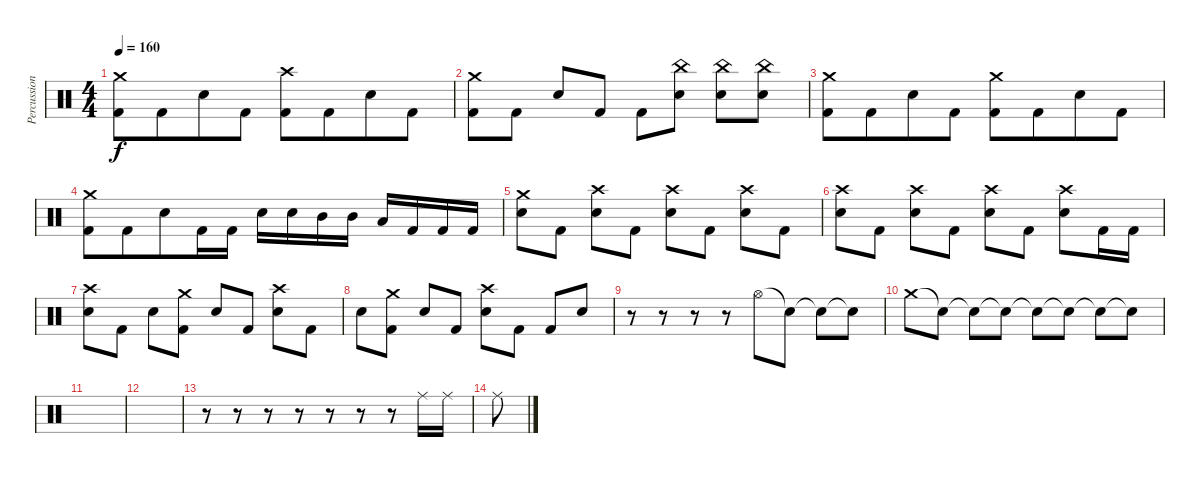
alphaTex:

\track ("Percussion" "Percussion") {instrument percussion}
\staff {score}
\articulation defaults
\ts (4 4)
\tempo 160
\clef neutral
\ks c
("Crash medium (hit)" "Kick (hit) 2").8{dy f beam merge} "Kick (hit) 2".8{beam merge} "Electric Snare (hit)".8 "Kick (hit) 2".8 ("Crash high (hit)" "Kick (hit) 2").8 "Kick (hit) 2".8{beam merge} "Electric Snare (hit)".8{beam merge} "Kick (hit) 2".8 |
("Crash medium (hit)" "Kick (hit) 2").8 "Kick (hit) 2".8 "Electric Snare (hit)".8{beam merge} "Kick (hit) 2".8 "Kick (hit) 2".8{beam merge} ("China (hit)" "Electric Snare (hit)").8 ("China (hit)" "Electric Snare (hit)").8 ("China (hit)" "Electric Snare (hit)").8 |
("Crash medium (hit)" "Kick (hit) 2").8{beam merge} "Kick (hit) 2".8{beam merge} "Electric Snare (hit)".8 "Kick (hit) 2".8 ("Crash medium (hit)" "Kick (hit) 2").8 "Kick (hit) 2".8{beam merge} "Electric Snare (hit)".8{beam merge} "Kick (hit) 2".8 |
("Crash medium (hit)" "Kick (hit) 2").8{beam merge} "Kick (hit) 2".8{beam merge} "Electric Snare (hit)".8 "Kick (hit) 2".16 "Kick (hit) 2".16 "Electric Snare (hit)".16 "Electric Snare (hit)".16{beam merge} "Mid Tom (hit)".16 "Mid Tom (hit)".16 "Low Tom (hit)".16 "Kick (hit) 2".16{beam merge} "Kick (hit) 2".16 "Kick (hit) 2".16 |
("Crash medium (hit)" "Electric Snare (hit)").8 "Kick (hit) 2".8 ("Crash high (hit)" "Electric Snare (hit)").8 "Kick (hit) 2".8 ("Crash high (hit)" "Electric Snare (hit)").8{beam merge} "Kick (hit) 2".8 ("Crash high (hit)" "Electric Snare (hit)").8 "Kick (hit) 2".8 |
("Crash high (hit)" "Electric Snare (hit)").8 "Kick (hit) 2".8 ("Crash high (hit)" "Electric Snare (hit)").8 "Kick (hit) 2".8 ("Crash high (hit)" "Electric Snare (hit)").8{beam merge} "Kick (hit) 2".8 ("Crash high (hit)" "Electric Snare (hit)").8 "Kick (hit) 2".16 "Kick (hit) 2".16 |
("Crash high (hit)" "Electric Snare (hit)").8 "Kick (hit) 2".8 "Electric Snare (hit)".8 ("Crash medium (hit)" "Kick (hit) 2").8 "Electric Snare (hit)".8{beam merge} "Kick (hit) 2".8 ("Crash high (hit)" "Electric Snare (hit)").8 "Kick (hit) 2".8 |
"Electric Snare (hit)".8 ("Crash medium (hit)" "Kick (hit) 2").8 "Electric Snare (hit)".8 "Kick (hit) 2".8 ("Crash high (hit)" "Electric Snare (hit)").8{beam merge} "Kick (hit) 2".8 "Kick (hit) 2".8 "Electric Snare (hit)".8 |
r.8{beam merge} r.8 r.8{beam merge} r.8{beam merge} "Hi-Hat (open)".8 "Snare (hit)"{t}.8 "Snare (hit)"{t}.8{beam merge} "Snare (hit)"{t}.8 |
"Crash medium (hit)".8 "Snare (hit)"{t}.8 "Snare (hit)"{t}.8 "Snare (hit)"{t}.8 "Snare (hit)"{t}.8{beam merge} "Snare (hit)"{t}.8 "Snare (hit)"{t}.8 "Snare (hit)"{t}.8 |
|
|
r.8 r.8 r.8 r.8 r.8{beam merge} r.8{beam merge} r.8 "Ride (middle)".16{beam merge} "Ride (middle)".16 |
"Ride (middle)".8
